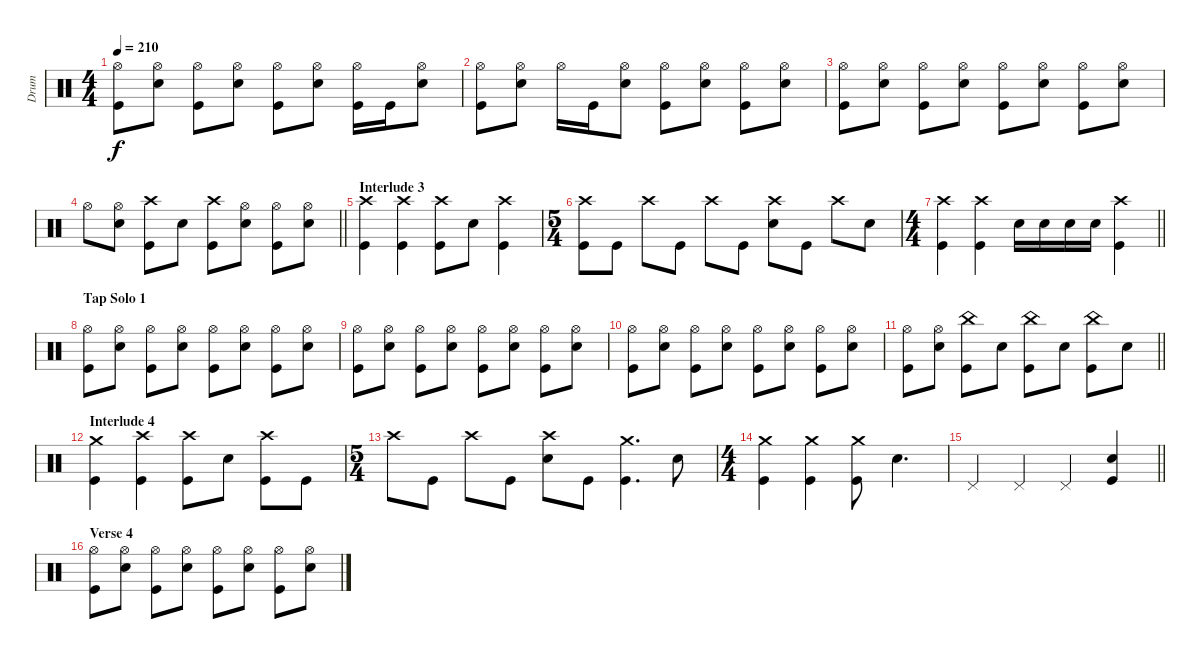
\track ("Drum" "Drum") {instrument percussion}
\staff {score}
\articulation defaults
\ts (4 4)
\tempo 210
\clef neutral
\ks c
("Hi-Hat (open)" "Kick (hit)").8{dy f} ("Hi-Hat (open)" "Snare (hit) 2").8 ("Hi-Hat (open)" "Kick (hit)").8 ("Hi-Hat (open)" "Snare (hit) 2").8 ("Hi-Hat (open)" "Kick (hit)").8 ("Hi-Hat (open)" "Snare (hit) 2").8 ("Hi-Hat (open)" "Kick (hit)").16 "Kick (hit)".16 ("Hi-Hat (open)" "Snare (hit) 2").8 |
("Hi-Hat (open)" "Kick (hit)").8 ("Hi-Hat (open)" "Snare (hit) 2").8 "Hi-Hat (open)".16 "Kick (hit)".16 ("Hi-Hat (open)" "Snare (hit) 2").8 ("Hi-Hat (open)" "Kick (hit)").8 ("Hi-Hat (open)" "Snare (hit) 2").8 ("Hi-Hat (open)" "Kick (hit)").8 ("Hi-Hat (open)" "Snare (hit) 2").8 |
("Hi-Hat (open)" "Kick (hit)").8 ("Hi-Hat (open)" "Snare (hit) 2").8 ("Hi-Hat (open)" "Kick (hit)").8 ("Hi-Hat (open)" "Snare (hit) 2").8 ("Hi-Hat (open)" "Kick (hit)").8 ("Hi-Hat (open)" "Snare (hit) 2").8 ("Hi-Hat (open)" "Kick (hit)").8 ("Hi-Hat (open)" "Snare (hit) 2").8 |
\barLineRight lightlight "Hi-Hat (open)".8
("Hi-Hat (open)" "Snare (hit) 2").8 ("Crash high (hit)" "Kick (hit)").8 "Snare (hit) 2".8 ("Crash high (hit)" "Kick (hit)").8 ("Hi-Hat (open)" "Snare (hit) 2").8 ("Hi-Hat (open)" "Kick (hit)").8 ("Hi-Hat (open)" "Snare (hit) 2").8 |
\section ("" "Interlude 3")
("Crash high (hit)" "Kick (hit)").4 ("Crash high (hit)" "Kick (hit)").4 ("Crash high (hit)" "Kick (hit)").8 "Snare (hit) 2".8 ("Crash high (hit)" "Kick (hit)").4 |
\ts (5 4)
("Crash high (hit)" "Kick (hit)").8 "Kick (hit)".8 "Crash high (hit)".8 "Kick (hit)".8 "Crash high (hit)".8 "Kick (hit)".8 ("Crash high (hit)" "Snare (hit) 2").8 "Kick (hit)".8 "Crash high (hit)".8 "Snare (hit) 2".8 |
\ts (4 4)
\barLineRight lightlight
("Crash high (hit)" "Kick (hit)").4 ("Crash high (hit)" "Kick (hit)").4 "Snare (hit) 2".16 "Snare (hit) 2".16 "Snare (hit) 2".16 "Snare (hit) 2".16 ("Crash high (hit)" "Kick (hit)").4 |
\section ("" "Tap Solo 1")
("Hi-Hat (open)" "Kick (hit)").8 ("Hi-Hat (open)" "Snare (hit) 2").8 ("Hi-Hat (open)" "Kick (hit)").8 ("Hi-Hat (open)" "Snare (hit) 2").8 ("Hi-Hat (open)" "Kick (hit)").8 ("Hi-Hat (open)" "Snare (hit) 2").8 ("Hi-Hat (open)" "Kick (hit)").8 ("Hi-Hat (open)" "Snare (hit) 2").8 |
("Hi-Hat (open)" "Kick (hit)").8 ("Hi-Hat (open)" "Snare (hit) 2").8 ("Hi-Hat (open)" "Kick (hit)").8 ("Hi-Hat (open)" "Snare (hit) 2").8 ("Hi-Hat (open)" "Kick (hit)").8 ("Hi-Hat (open)" "Snare (hit) 2").8 ("Hi-Hat (open)" "Kick (hit)").8 ("Hi-Hat (open)" "Snare (hit) 2").8 |
("Hi-Hat (open)" "Kick (hit)").8 ("Hi-Hat (open)" "Snare (hit) 2").8 ("Hi-Hat (open)" "Kick (hit)").8 ("Hi-Hat (open)" "Snare (hit) 2").8 ("Hi-Hat (open)" "Kick (hit)").8 ("Hi-Hat (open)" "Snare (hit) 2").8 ("Hi-Hat (open)" "Kick (hit)").8 ("Hi-Hat (open)" "Snare (hit) 2").8 |
\barLineRight lightlight
("Hi-Hat (open)" "Kick (hit)").8 ("Hi-Hat (open)" "Snare (hit) 2").8 ("China (hit)" "Kick (hit)").8 "Snare (hit) 2".8 ("China (hit)" "Kick (hit)").8 "Snare (hit) 2".8 ("China (hit)" "Kick (hit)").8 "Snare (hit) 2".8 |
\section ("" "Interlude 4")
("Crash medium (hit)" "Kick (hit)").4 ("Crash high (hit)" "Kick (hit)").4 ("Crash high (hit)" "Kick (hit)").8 "Snare (hit) 2".8 ("Crash high (hit)" "Kick (hit)").8 "Kick (hit)".8 |
\ts (5 4)
"Crash high (hit)".8 "Kick (hit)".8 "Crash high (hit)".8 "Kick (hit)".8 ("Crash high (hit)" "Snare (hit) 2").8 "Kick (hit)".8 ("Crash medium (hit)" "Kick (hit)").4{d} "Snare (hit) 2".8 |
\ts (4 4)
("Crash medium (hit)" "Kick (hit)").4 ("Crash medium (hit)" "Kick (hit)").4 ("Crash medium (hit)" "Kick (hit)").8 "Snare (hit) 2".4{d} |
\barLineRight lightlight "Pedal Hi-Hat (hit)".4 "Pedal Hi-Hat (hit)".4 "Pedal Hi-Hat (hit)".4
("Snare (hit) 2" "Kick (hit)").4 |
\section ("" "Verse 4")
("Hi-Hat (open)" "Kick (hit)").8 ("Hi-Hat (open)" "Snare (hit) 2").8 ("Hi-Hat (open)" "Kick (hit)").8 ("Hi-Hat (open)" "Snare (hit) 2").8 ("Hi-Hat (open)" "Kick (hit)").8 ("Hi-Hat (open)" "Snare (hit) 2").8 ("Hi-Hat (open)" "Kick (hit)").8 ("Hi-Hat (open)" "Snare (hit) 2").8
